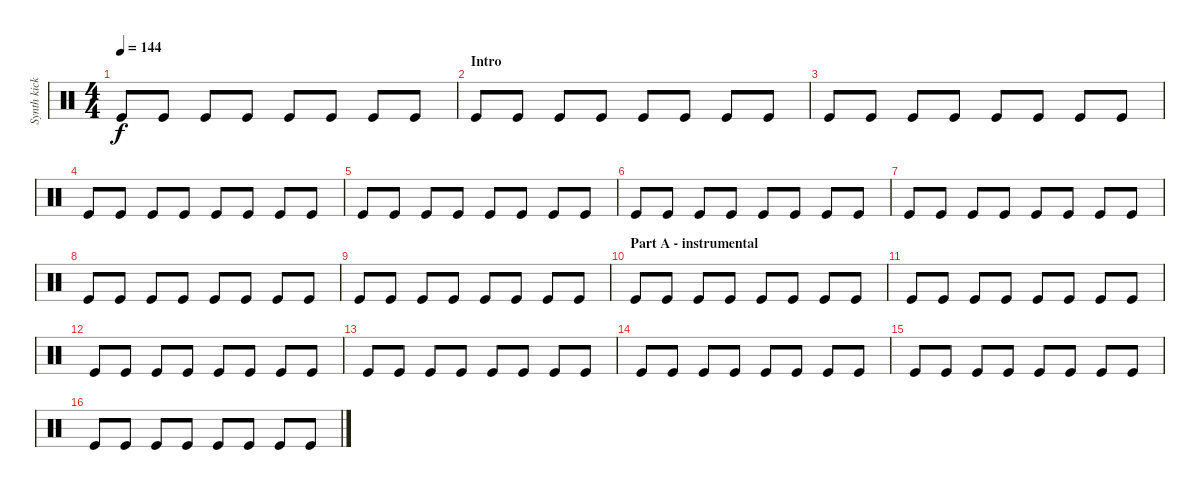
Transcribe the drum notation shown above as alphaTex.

\track ("Synth kick loop" "Synth kick") {instrument percussion}
\staff {score}
\articulation defaults
\ts (4 4)
\tempo 144
\clef neutral
\ks c "Kick (hit)".8{dy f} "Kick (hit)".8 "Kick (hit)".8 "Kick (hit)".8 "Kick (hit)".8 "Kick (hit)".8 "Kick (hit)".8 "Kick (hit)".8
|
\section ("" "Intro")
"Kick (hit)".8 "Kick (hit)".8 "Kick (hit)".8 "Kick (hit)".8 "Kick (hit)".8 "Kick (hit)".8 "Kick (hit)".8 "Kick (hit)".8 |
"Kick (hit)".8 "Kick (hit)".8 "Kick (hit)".8 "Kick (hit)".8 "Kick (hit)".8 "Kick (hit)".8 "Kick (hit)".8 "Kick (hit)".8 |
"Kick (hit)".8 "Kick (hit)".8 "Kick (hit)".8 "Kick (hit)".8 "Kick (hit)".8 "Kick (hit)".8 "Kick (hit)".8 "Kick (hit)".8 |
"Kick (hit)".8 "Kick (hit)".8 "Kick (hit)".8 "Kick (hit)".8 "Kick (hit)".8 "Kick (hit)".8 "Kick (hit)".8 "Kick (hit)".8 |
"Kick (hit)".8 "Kick (hit)".8 "Kick (hit)".8 "Kick (hit)".8 "Kick (hit)".8 "Kick (hit)".8 "Kick (hit)".8 "Kick (hit)".8 |
"Kick (hit)".8 "Kick (hit)".8 "Kick (hit)".8 "Kick (hit)".8 "Kick (hit)".8 "Kick (hit)".8 "Kick (hit)".8 "Kick (hit)".8 |
"Kick (hit)".8 "Kick (hit)".8 "Kick (hit)".8 "Kick (hit)".8 "Kick (hit)".8 "Kick (hit)".8 "Kick (hit)".8 "Kick (hit)".8 |
"Kick (hit)".8 "Kick (hit)".8 "Kick (hit)".8 "Kick (hit)".8 "Kick (hit)".8 "Kick (hit)".8 "Kick (hit)".8 "Kick (hit)".8 |
\section ("" "Part A - instrumental")
"Kick (hit)".8 "Kick (hit)".8 "Kick (hit)".8 "Kick (hit)".8 "Kick (hit)".8 "Kick (hit)".8 "Kick (hit)".8 "Kick (hit)".8 |
"Kick (hit)".8 "Kick (hit)".8 "Kick (hit)".8 "Kick (hit)".8 "Kick (hit)".8 "Kick (hit)".8 "Kick (hit)".8 "Kick (hit)".8 |
"Kick (hit)".8 "Kick (hit)".8 "Kick (hit)".8 "Kick (hit)".8 "Kick (hit)".8 "Kick (hit)".8 "Kick (hit)".8 "Kick (hit)".8 |
"Kick (hit)".8 "Kick (hit)".8 "Kick (hit)".8 "Kick (hit)".8 "Kick (hit)".8 "Kick (hit)".8 "Kick (hit)".8 "Kick (hit)".8 |
"Kick (hit)".8 "Kick (hit)".8 "Kick (hit)".8 "Kick (hit)".8 "Kick (hit)".8 "Kick (hit)".8 "Kick (hit)".8 "Kick (hit)".8 |
"Kick (hit)".8 "Kick (hit)".8 "Kick (hit)".8 "Kick (hit)".8 "Kick (hit)".8 "Kick (hit)".8 "Kick (hit)".8 "Kick (hit)".8 |
"Kick (hit)".8 "Kick (hit)".8 "Kick (hit)".8 "Kick (hit)".8 "Kick (hit)".8 "Kick (hit)".8 "Kick (hit)".8 "Kick (hit)".8
